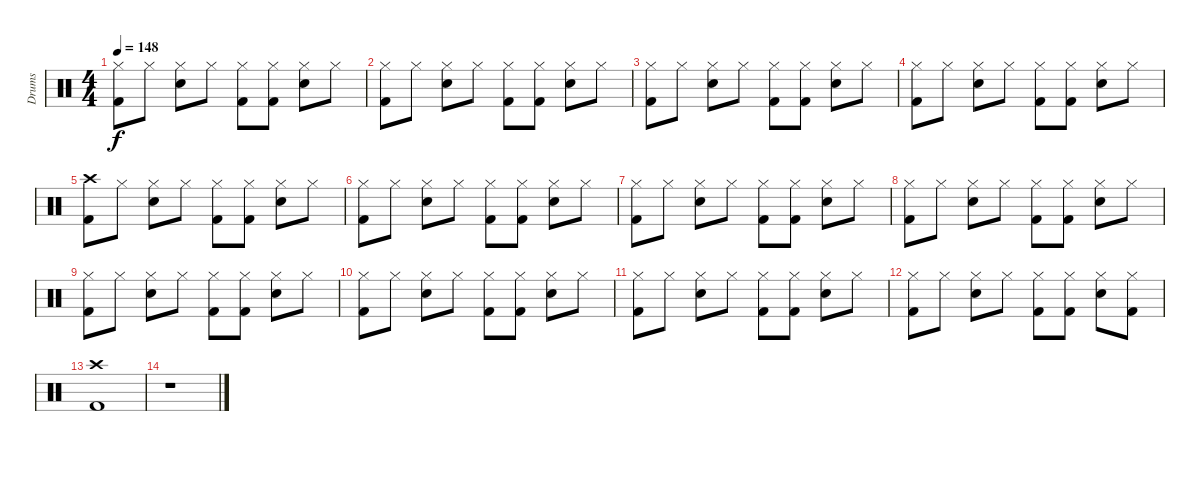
\track ("Drums " "Drums ") {instrument percussion}
\staff {score}
\articulation defaults
\ts (4 4)
\tempo 148
\clef neutral
\ks c
("Hi-Hat (closed)" "Kick (hit) 2").8{dy f} "Hi-Hat (closed)".8 ("Hi-Hat (closed)" "Snare (hit) 2").8 "Hi-Hat (closed)".8 ("Hi-Hat (closed)" "Kick (hit) 2").8 ("Hi-Hat (closed)" "Kick (hit) 2").8 ("Hi-Hat (closed)" "Snare (hit) 2").8 "Hi-Hat (closed)".8 |
("Hi-Hat (closed)" "Kick (hit) 2").8 "Hi-Hat (closed)".8 ("Hi-Hat (closed)" "Snare (hit) 2").8 "Hi-Hat (closed)".8 ("Hi-Hat (closed)" "Kick (hit) 2").8 ("Hi-Hat (closed)" "Kick (hit) 2").8 ("Hi-Hat (closed)" "Snare (hit) 2").8 "Hi-Hat (closed)".8 |
("Hi-Hat (closed)" "Kick (hit) 2").8 "Hi-Hat (closed)".8 ("Hi-Hat (closed)" "Snare (hit) 2").8 "Hi-Hat (closed)".8 ("Hi-Hat (closed)" "Kick (hit) 2").8 ("Hi-Hat (closed)" "Kick (hit) 2").8 ("Hi-Hat (closed)" "Snare (hit) 2").8 "Hi-Hat (closed)".8 |
("Hi-Hat (closed)" "Kick (hit) 2").8 "Hi-Hat (closed)".8 ("Hi-Hat (closed)" "Snare (hit) 2").8 "Hi-Hat (closed)".8 ("Hi-Hat (closed)" "Kick (hit) 2").8 ("Hi-Hat (closed)" "Kick (hit) 2").8 ("Hi-Hat (closed)" "Snare (hit) 2").8 "Hi-Hat (closed)".8 |
("Crash high (hit)" "Kick (hit) 2").8 "Hi-Hat (closed)".8 ("Hi-Hat (closed)" "Snare (hit) 2").8 "Hi-Hat (closed)".8 ("Hi-Hat (closed)" "Kick (hit) 2").8 ("Hi-Hat (closed)" "Kick (hit) 2").8 ("Hi-Hat (closed)" "Snare (hit) 2").8 "Hi-Hat (closed)".8 |
("Hi-Hat (closed)" "Kick (hit) 2").8 "Hi-Hat (closed)".8 ("Hi-Hat (closed)" "Snare (hit) 2").8 "Hi-Hat (closed)".8 ("Hi-Hat (closed)" "Kick (hit) 2").8 ("Hi-Hat (closed)" "Kick (hit) 2").8 ("Hi-Hat (closed)" "Snare (hit) 2").8 "Hi-Hat (closed)".8 |
("Hi-Hat (closed)" "Kick (hit) 2").8 "Hi-Hat (closed)".8 ("Hi-Hat (closed)" "Snare (hit) 2").8 "Hi-Hat (closed)".8 ("Hi-Hat (closed)" "Kick (hit) 2").8 ("Hi-Hat (closed)" "Kick (hit) 2").8 ("Hi-Hat (closed)" "Snare (hit) 2").8 "Hi-Hat (closed)".8 |
("Hi-Hat (closed)" "Kick (hit) 2").8 "Hi-Hat (closed)".8 ("Hi-Hat (closed)" "Snare (hit) 2").8 "Hi-Hat (closed)".8 ("Hi-Hat (closed)" "Kick (hit) 2").8 ("Hi-Hat (closed)" "Kick (hit) 2").8 ("Hi-Hat (closed)" "Snare (hit) 2").8 "Hi-Hat (closed)".8 |
("Hi-Hat (closed)" "Kick (hit) 2").8 "Hi-Hat (closed)".8 ("Hi-Hat (closed)" "Snare (hit) 2").8 "Hi-Hat (closed)".8 ("Hi-Hat (closed)" "Kick (hit) 2").8 ("Hi-Hat (closed)" "Kick (hit) 2").8 ("Hi-Hat (closed)" "Snare (hit) 2").8 "Hi-Hat (closed)".8 |
("Hi-Hat (closed)" "Kick (hit) 2").8 "Hi-Hat (closed)".8 ("Hi-Hat (closed)" "Snare (hit) 2").8 "Hi-Hat (closed)".8 ("Hi-Hat (closed)" "Kick (hit) 2").8 ("Hi-Hat (closed)" "Kick (hit) 2").8 ("Hi-Hat (closed)" "Snare (hit) 2").8 "Hi-Hat (closed)".8 |
("Hi-Hat (closed)" "Kick (hit) 2").8 "Hi-Hat (closed)".8 ("Hi-Hat (closed)" "Snare (hit) 2").8 "Hi-Hat (closed)".8 ("Hi-Hat (closed)" "Kick (hit) 2").8 ("Hi-Hat (closed)" "Kick (hit) 2").8 ("Hi-Hat (closed)" "Snare (hit) 2").8 "Hi-Hat (closed)".8 |
("Hi-Hat (closed)" "Kick (hit) 2").8 "Hi-Hat (closed)".8 ("Hi-Hat (closed)" "Snare (hit) 2").8 "Hi-Hat (closed)".8 ("Hi-Hat (closed)" "Kick (hit) 2").8 ("Hi-Hat (closed)" "Kick (hit) 2").8 ("Hi-Hat (closed)" "Snare (hit) 2").8 ("Hi-Hat (closed)" "Kick (hit) 2").8 |
("Crash high (hit)" "Kick (hit) 2").1{volume 0} |
r.1
